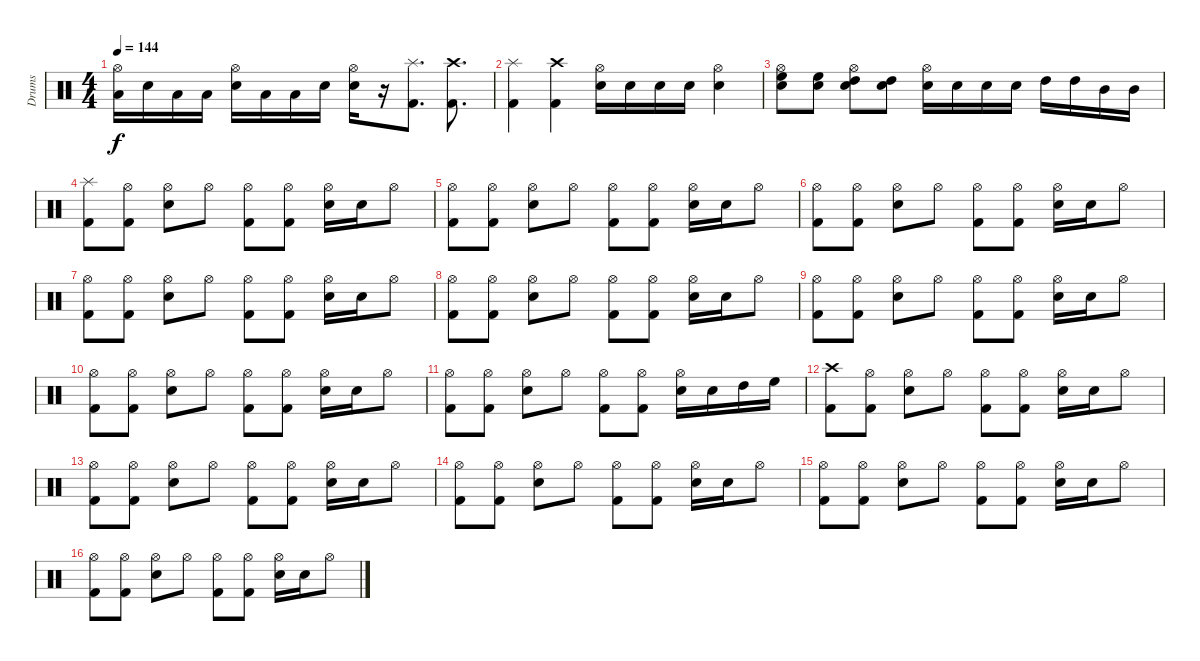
\track ("Drums" "Drums") {instrument percussion}
\staff {score}
\articulation defaults
\ts (4 4)
\tempo 144
\clef neutral
\ks c
("Low Floor Tom (hit)" "Hi-Hat (open)").16{dy f} "Snare (hit) 2".16 "Low Tom (hit)".16 "Low Floor Tom (hit)".16 ("Snare (hit) 2" "Hi-Hat (open)").16 "Low Tom (hit)".16 "Low Floor Tom (hit)".16 "Snare (hit) 2".16 ("Snare (hit) 2" "Hi-Hat (open)").16 r.16 ("Kick (hit) 2" "Splash (hit)").8{d} ("Kick (hit) 2" "Crash high (hit)").8{d} |
("Kick (hit) 2" "Splash (hit)").4 ("Kick (hit) 2" "Crash high (hit)").4 ("Snare (hit) 2" "Hi-Hat (open)").16 "Snare (hit) 2".16 "Snare (hit) 2".16 "Snare (hit) 2".16 ("Snare (hit) 2" "Hi-Hat (open)").4 |
("Snare (hit) 2" "High Floor Tom (hit)" "Hi-Hat (open)").8 ("Snare (hit) 2" "High Floor Tom (hit)").8 ("Snare (hit) 2" "High Tom (hit)" "Hi-Hat (open)").8 ("Snare (hit) 2" "High Tom (hit)").8 ("Snare (hit) 2" "Hi-Hat (open)").16 "Snare (hit) 2".16 "Snare (hit) 2".16 "Snare (hit) 2".16 "High Tom (hit)".16 "High Tom (hit)".16 "Mid Tom (hit)".16 "Mid Tom (hit)".16 |
("Kick (hit) 2" "Splash (hit)").8 ("Kick (hit) 2" "Hi-Hat (open)").8 ("Snare (hit) 2" "Hi-Hat (open)").8 "Hi-Hat (open)".8 ("Kick (hit) 2" "Hi-Hat (open)").8 ("Kick (hit) 2" "Hi-Hat (open)").8 ("Snare (hit) 2" "Hi-Hat (open)").16 "Snare (hit) 2".16 "Hi-Hat (open)".8 |
("Kick (hit) 2" "Hi-Hat (open)").8 ("Kick (hit) 2" "Hi-Hat (open)").8 ("Snare (hit) 2" "Hi-Hat (open)").8 "Hi-Hat (open)".8 ("Kick (hit) 2" "Hi-Hat (open)").8 ("Kick (hit) 2" "Hi-Hat (open)").8 ("Snare (hit) 2" "Hi-Hat (open)").16 "Snare (hit) 2".16 "Hi-Hat (open)".8 |
("Kick (hit) 2" "Hi-Hat (open)").8 ("Kick (hit) 2" "Hi-Hat (open)").8 ("Snare (hit) 2" "Hi-Hat (open)").8 "Hi-Hat (open)".8 ("Kick (hit) 2" "Hi-Hat (open)").8 ("Kick (hit) 2" "Hi-Hat (open)").8 ("Snare (hit) 2" "Hi-Hat (open)").16 "Snare (hit) 2".16 "Hi-Hat (open)".8 |
("Kick (hit) 2" "Hi-Hat (open)").8 ("Kick (hit) 2" "Hi-Hat (open)").8 ("Snare (hit) 2" "Hi-Hat (open)").8 "Hi-Hat (open)".8 ("Kick (hit) 2" "Hi-Hat (open)").8 ("Kick (hit) 2" "Hi-Hat (open)").8 ("Snare (hit) 2" "Hi-Hat (open)").16 "Snare (hit) 2".16 "Hi-Hat (open)".8 |
("Kick (hit) 2" "Hi-Hat (open)").8 ("Kick (hit) 2" "Hi-Hat (open)").8 ("Snare (hit) 2" "Hi-Hat (open)").8 "Hi-Hat (open)".8 ("Kick (hit) 2" "Hi-Hat (open)").8 ("Kick (hit) 2" "Hi-Hat (open)").8 ("Snare (hit) 2" "Hi-Hat (open)").16 "Snare (hit) 2".16 "Hi-Hat (open)".8 |
("Kick (hit) 2" "Hi-Hat (open)").8 ("Kick (hit) 2" "Hi-Hat (open)").8 ("Snare (hit) 2" "Hi-Hat (open)").8 "Hi-Hat (open)".8 ("Kick (hit) 2" "Hi-Hat (open)").8 ("Kick (hit) 2" "Hi-Hat (open)").8 ("Snare (hit) 2" "Hi-Hat (open)").16 "Snare (hit) 2".16 "Hi-Hat (open)".8 |
("Kick (hit) 2" "Hi-Hat (open)").8 ("Kick (hit) 2" "Hi-Hat (open)").8 ("Snare (hit) 2" "Hi-Hat (open)").8 "Hi-Hat (open)".8 ("Kick (hit) 2" "Hi-Hat (open)").8 ("Kick (hit) 2" "Hi-Hat (open)").8 ("Snare (hit) 2" "Hi-Hat (open)").16 "Snare (hit) 2".16 "Hi-Hat (open)".8 |
("Kick (hit) 2" "Hi-Hat (open)").8 ("Kick (hit) 2" "Hi-Hat (open)").8 ("Snare (hit) 2" "Hi-Hat (open)").8 "Hi-Hat (open)".8 ("Kick (hit) 2" "Hi-Hat (open)").8 ("Kick (hit) 2" "Hi-Hat (open)").8 ("Snare (hit) 2" "Hi-Hat (open)").16 "Snare (hit) 2".16 "High Tom (hit)".16 "High Floor Tom (hit)".16 |
("Kick (hit) 2" "Crash high (hit)").8 ("Kick (hit) 2" "Hi-Hat (open)").8 ("Snare (hit) 2" "Hi-Hat (open)").8 "Hi-Hat (open)".8 ("Kick (hit) 2" "Hi-Hat (open)").8 ("Kick (hit) 2" "Hi-Hat (open)").8 ("Snare (hit) 2" "Hi-Hat (open)").16 "Snare (hit) 2".16 "Hi-Hat (open)".8 |
("Kick (hit) 2" "Hi-Hat (open)").8 ("Kick (hit) 2" "Hi-Hat (open)").8 ("Snare (hit) 2" "Hi-Hat (open)").8 "Hi-Hat (open)".8 ("Kick (hit) 2" "Hi-Hat (open)").8 ("Kick (hit) 2" "Hi-Hat (open)").8 ("Snare (hit) 2" "Hi-Hat (open)").16 "Snare (hit) 2".16 "Hi-Hat (open)".8 |
("Kick (hit) 2" "Hi-Hat (open)").8 ("Kick (hit) 2" "Hi-Hat (open)").8 ("Snare (hit) 2" "Hi-Hat (open)").8 "Hi-Hat (open)".8 ("Kick (hit) 2" "Hi-Hat (open)").8 ("Kick (hit) 2" "Hi-Hat (open)").8 ("Snare (hit) 2" "Hi-Hat (open)").16 "Snare (hit) 2".16 "Hi-Hat (open)".8 |
("Kick (hit) 2" "Hi-Hat (open)").8 ("Kick (hit) 2" "Hi-Hat (open)").8 ("Snare (hit) 2" "Hi-Hat (open)").8 "Hi-Hat (open)".8 ("Kick (hit) 2" "Hi-Hat (open)").8 ("Kick (hit) 2" "Hi-Hat (open)").8 ("Snare (hit) 2" "Hi-Hat (open)").16 "Snare (hit) 2".16 "Hi-Hat (open)".8 |
("Kick (hit) 2" "Hi-Hat (open)").8 ("Kick (hit) 2" "Hi-Hat (open)").8 ("Snare (hit) 2" "Hi-Hat (open)").8 "Hi-Hat (open)".8 ("Kick (hit) 2" "Hi-Hat (open)").8 ("Kick (hit) 2" "Hi-Hat (open)").8 ("Snare (hit) 2" "Hi-Hat (open)").16 "Snare (hit) 2".16 "Hi-Hat (open)".8
